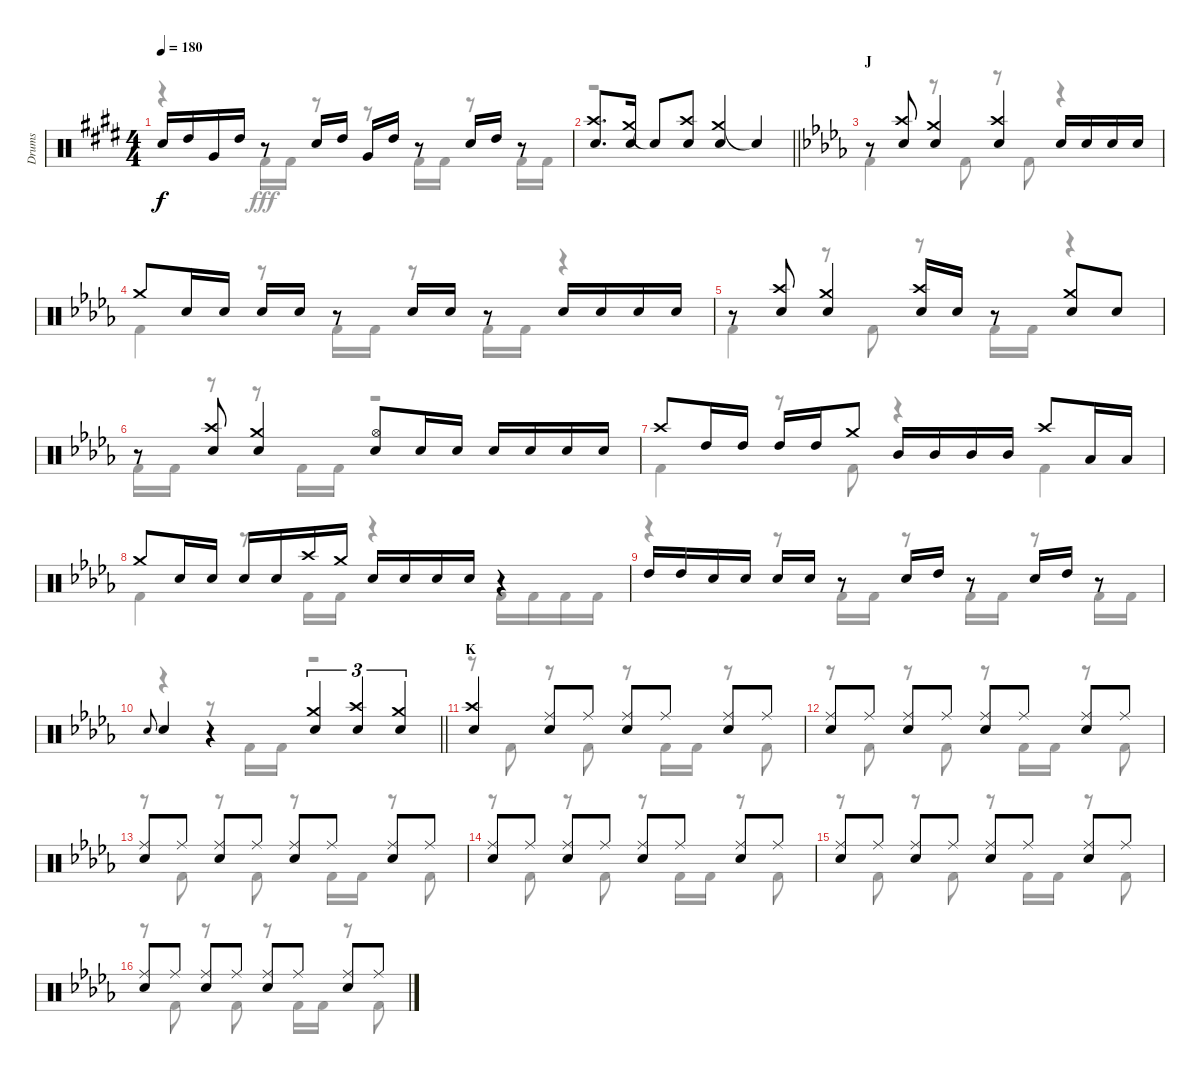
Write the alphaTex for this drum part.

\track ("Drums" "Drums") {instrument percussion}
\staff {score}
\articulation defaults
\voice
\ts (4 4)
\tempo 180
\clef neutral
\ks e "Snare (hit) 2".16{dy f} "High Tom (hit)".16 "Very Low Tom (hit)".16 "High Tom (hit)".16
r.8 "Snare (hit) 2".16 "High Tom (hit)".16 "Very Low Tom (hit)".16 "High Tom (hit)".16 r.8 "Snare (hit) 2".16 "High Tom (hit)".16 r.8 |
\barLineRight lightlight
("Crash high (hit)" "Snare (hit) 2").8{d} ("Crash medium (hit)" "Snare (hit) 2").16 "Snare (hit)"{t}.8 ("Crash high (hit)" "Snare (hit) 2").8 ("Crash medium (hit)" "Snare (hit) 2").4 "Snare (hit)"{t}.4 |
\section ("" "J")
\ks db
r.8 ("Crash high (hit)" "Snare (hit) 2").8 ("Crash medium (hit)" "Snare (hit) 2").4 ("Crash high (hit)" "Snare (hit) 2").4 "Snare (hit) 2".16 "Snare (hit) 2".16 "Snare (hit) 2".16 "Snare (hit) 2".16 |
"Crash medium (hit)".8 "Snare (hit) 2".16 "Snare (hit) 2".16 "Snare (hit) 2".16 "Snare (hit) 2".16 r.8 "Snare (hit) 2".16 "Snare (hit) 2".16 r.8 "Snare (hit) 2".16 "Snare (hit) 2".16 "Snare (hit) 2".16 "Snare (hit) 2".16 |
r.8 ("Crash high (hit)" "Snare (hit) 2").8 ("Crash medium (hit)" "Snare (hit) 2").4 ("Crash high (hit)" "Snare (hit) 2").16 "Snare (hit) 2".16 r.8 ("Crash medium (hit)" "Snare (hit) 2").8 "Snare (hit) 2".8 |
r.8 ("Crash high (hit)" "Snare (hit) 2").8 ("Crash medium (hit)" "Snare (hit) 2").4 ("Hi-Hat (open)" "Snare (hit) 2").8 "Snare (hit) 2".16 "Snare (hit) 2".16 "Snare (hit) 2".16 "Snare (hit) 2".16 "Snare (hit) 2".16 "Snare (hit) 2".16 |
"Crash high (hit)".8 "High Tom (hit)".16 "High Tom (hit)".16 "High Tom (hit)".16 "High Tom (hit)".16 "Crash medium (hit)".8 "Mid Tom (hit)".16 "Mid Tom (hit)".16 "Mid Tom (hit)".16 "Mid Tom (hit)".16 "Crash high (hit)".8 "Low Tom (hit)".16 "Low Tom (hit)".16 |
"Crash medium (hit)".8 "Snare (hit) 2".16 "Snare (hit) 2".16 "Snare (hit) 2".16 "Snare (hit) 2".16 "Crash high (hit)".16 "Crash medium (hit)".16 "Snare (hit) 2".16 "Snare (hit) 2".16 "Snare (hit) 2".16 "Snare (hit) 2".16 r.4 |
"High Tom (hit)".16 "High Tom (hit)".16 "Snare (hit) 2".16 "Snare (hit) 2".16 "Snare (hit) 2".16 "Snare (hit) 2".16 r.8 "Snare (hit) 2".16 "High Tom (hit)".16 r.8 "Snare (hit) 2".16 "High Tom (hit)".16 r.8 |
\barLineRight lightlight "Snare (hit) 2".8{gr onbeat} "Snare (hit) 2".4
r.4 ("Crash medium (hit)" "Snare (hit) 2").4{tu (3 2)} ("Crash high (hit)" "Snare (hit) 2").4{tu (3 2)} ("Crash medium (hit)" "Snare (hit) 2").4{tu (3 2)} |
\section ("" "K")
("Crash high (hit)" "Snare (hit) 2").4 ("Ride (middle)" "Snare (hit) 2").8 "Ride (middle)".8 ("Ride (middle)" "Snare (hit) 2").8 "Ride (middle)".8 ("Ride (middle)" "Snare (hit) 2").8 "Ride (middle)".8 |
("Ride (middle)" "Snare (hit) 2").8 "Ride (middle)".8 ("Ride (middle)" "Snare (hit) 2").8 "Ride (middle)".8 ("Ride (middle)" "Snare (hit) 2").8 "Ride (middle)".8 ("Ride (middle)" "Snare (hit) 2").8 "Ride (middle)".8 |
("Ride (middle)" "Snare (hit) 2").8 "Ride (middle)".8 ("Ride (middle)" "Snare (hit) 2").8 "Ride (middle)".8 ("Ride (middle)" "Snare (hit) 2").8 "Ride (middle)".8 ("Ride (middle)" "Snare (hit) 2").8 "Ride (middle)".8 |
("Ride (middle)" "Snare (hit) 2").8 "Ride (middle)".8 ("Ride (middle)" "Snare (hit) 2").8 "Ride (middle)".8 ("Ride (middle)" "Snare (hit) 2").8 "Ride (middle)".8 ("Ride (middle)" "Snare (hit) 2").8 "Ride (middle)".8 |
("Ride (middle)" "Snare (hit) 2").8 "Ride (middle)".8 ("Ride (middle)" "Snare (hit) 2").8 "Ride (middle)".8 ("Ride (middle)" "Snare (hit) 2").8 "Ride (middle)".8 ("Ride (middle)" "Snare (hit) 2").8 "Ride (middle)".8 |
("Ride (middle)" "Snare (hit) 2").8 "Ride (middle)".8 ("Ride (middle)" "Snare (hit) 2").8 "Ride (middle)".8 ("Ride (middle)" "Snare (hit) 2").8 "Ride (middle)".8 ("Ride (middle)" "Snare (hit) 2").8 "Ride (middle)".8
\voice
\clef neutral
\ottava regular
\simile none
\ks e
r.4{dy fff} "Kick (hit) 2".16 "Kick (hit) 2".16 r.8 r.8 "Kick (hit) 2".16 "Kick (hit) 2".16 r.8 "Kick (hit) 2".16 "Kick (hit) 2".16 |
\barLineRight lightlight
r.1 |
\ks db "Kick (hit) 2".4
r.8 "Kick (hit) 2".8 r.8 "Kick (hit) 2".8 r.4 |
"Kick (hit) 2".4 r.8 "Kick (hit) 2".16 "Kick (hit) 2".16 r.8 "Kick (hit) 2".16 "Kick (hit) 2".16 r.4 |
"Kick (hit) 2".4 r.8 "Kick (hit) 2".8 r.8 "Kick (hit) 2".16 "Kick (hit) 2".16 r.4 |
"Kick (hit) 2".16 "Kick (hit) 2".16 r.8 r.8 "Kick (hit) 2".16 "Kick (hit) 2".16 r.2 |
"Kick (hit) 2".4 r.8 "Kick (hit) 2".8 r.4 "Kick (hit) 2".4 |
"Kick (hit) 2".4 r.8 "Kick (hit) 2".16 "Kick (hit) 2".16 r.4 "Kick (hit) 2".16 "Kick (hit) 2".16 "Kick (hit) 2".16 "Kick (hit) 2".16 |
r.4 r.8 "Kick (hit) 2".16 "Kick (hit) 2".16 r.8 "Kick (hit) 2".16 "Kick (hit) 2".16 r.8 "Kick (hit) 2".16 "Kick (hit) 2".16 |
\barLineRight lightlight
r.4 r.8 "Kick (hit) 2".16 "Kick (hit) 2".16 r.2 |
r.8 "Kick (hit) 2".8 r.8 "Kick (hit) 2".8 r.8 "Kick (hit) 2".16 "Kick (hit) 2".16 r.8 "Kick (hit) 2".8 |
r.8 "Kick (hit) 2".8 r.8 "Kick (hit) 2".8 r.8 "Kick (hit) 2".16 "Kick (hit) 2".16 r.8 "Kick (hit) 2".8 |
r.8 "Kick (hit) 2".8 r.8 "Kick (hit) 2".8 r.8 "Kick (hit) 2".16 "Kick (hit) 2".16 r.8 "Kick (hit) 2".8 |
r.8 "Kick (hit) 2".8 r.8 "Kick (hit) 2".8 r.8 "Kick (hit) 2".16 "Kick (hit) 2".16 r.8 "Kick (hit) 2".8 |
r.8 "Kick (hit) 2".8 r.8 "Kick (hit) 2".8 r.8 "Kick (hit) 2".16 "Kick (hit) 2".16 r.8 "Kick (hit) 2".8 |
r.8 "Kick (hit) 2".8 r.8 "Kick (hit) 2".8 r.8 "Kick (hit) 2".16 "Kick (hit) 2".16 r.8 "Kick (hit) 2".8
